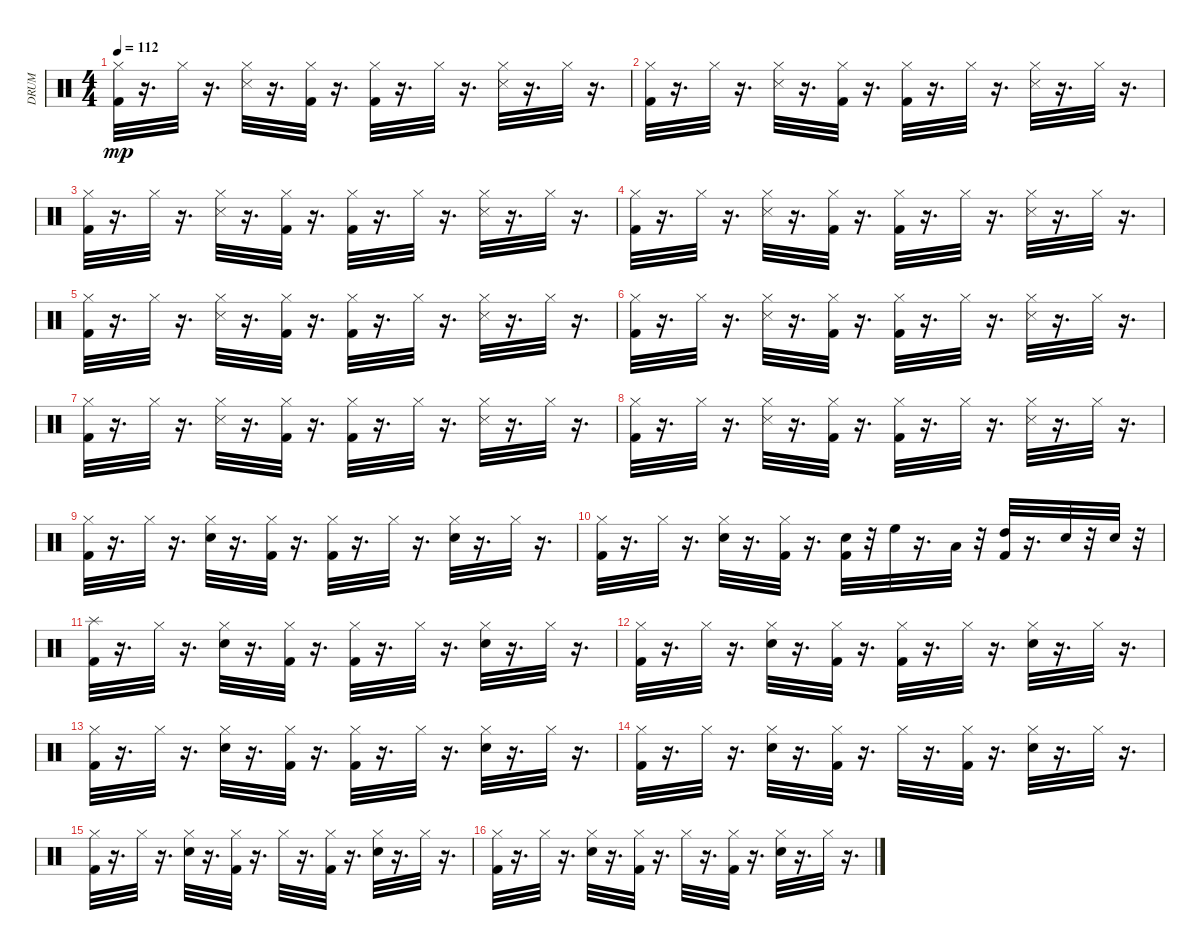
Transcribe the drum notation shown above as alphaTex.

\track ("DRUM" "DRUM") {instrument percussion}
\staff {score}
\articulation defaults
\ts (4 4)
\tempo 112
\clef neutral
\ks c
("Kick (hit) 2" "Hi-Hat (closed)").32{dy mp} r.16{d} "Hi-Hat (closed)".32 r.16{d} ("Hi-Hat (closed)" "Snare (side stick) 3").32 r.16{d} ("Kick (hit) 2" "Hi-Hat (closed)").32 r.16{d} ("Kick (hit) 2" "Hi-Hat (closed)").32 r.16{d} "Hi-Hat (closed)".32 r.16{d} ("Hi-Hat (closed)" "Snare (side stick) 3").32 r.16{d} "Hi-Hat (closed)".32 r.16{d} |
("Kick (hit) 2" "Hi-Hat (closed)").32 r.16{d} "Hi-Hat (closed)".32 r.16{d} ("Hi-Hat (closed)" "Snare (side stick) 3").32 r.16{d} ("Kick (hit) 2" "Hi-Hat (closed)").32 r.16{d} ("Kick (hit) 2" "Hi-Hat (closed)").32 r.16{d} "Hi-Hat (closed)".32 r.16{d} ("Hi-Hat (closed)" "Snare (side stick) 3").32 r.16{d} "Hi-Hat (closed)".32 r.16{d} |
("Kick (hit) 2" "Hi-Hat (closed)").32 r.16{d} "Hi-Hat (closed)".32 r.16{d} ("Hi-Hat (closed)" "Snare (side stick) 3").32 r.16{d} ("Kick (hit) 2" "Hi-Hat (closed)").32 r.16{d} ("Kick (hit) 2" "Hi-Hat (closed)").32 r.16{d} "Hi-Hat (closed)".32 r.16{d} ("Hi-Hat (closed)" "Snare (side stick) 3").32 r.16{d} "Hi-Hat (closed)".32 r.16{d} |
("Kick (hit) 2" "Hi-Hat (closed)").32 r.16{d} "Hi-Hat (closed)".32 r.16{d} ("Hi-Hat (closed)" "Snare (side stick) 3").32 r.16{d} ("Kick (hit) 2" "Hi-Hat (closed)").32 r.16{d} ("Kick (hit) 2" "Hi-Hat (closed)").32 r.16{d} "Hi-Hat (closed)".32 r.16{d} ("Hi-Hat (closed)" "Snare (side stick) 3").32 r.16{d} "Hi-Hat (closed)".32 r.16{d} |
("Kick (hit) 2" "Hi-Hat (closed)").32 r.16{d} "Hi-Hat (closed)".32 r.16{d} ("Hi-Hat (closed)" "Snare (side stick) 3").32 r.16{d} ("Kick (hit) 2" "Hi-Hat (closed)").32 r.16{d} ("Kick (hit) 2" "Hi-Hat (closed)").32 r.16{d} "Hi-Hat (closed)".32 r.16{d} ("Hi-Hat (closed)" "Snare (side stick) 3").32 r.16{d} "Hi-Hat (closed)".32 r.16{d} |
("Kick (hit) 2" "Hi-Hat (closed)").32 r.16{d} "Hi-Hat (closed)".32 r.16{d} ("Hi-Hat (closed)" "Snare (side stick) 3").32 r.16{d} ("Kick (hit) 2" "Hi-Hat (closed)").32 r.16{d} ("Kick (hit) 2" "Hi-Hat (closed)").32 r.16{d} "Hi-Hat (closed)".32 r.16{d} ("Hi-Hat (closed)" "Snare (side stick) 3").32 r.16{d} "Hi-Hat (closed)".32 r.16{d} |
("Kick (hit) 2" "Hi-Hat (closed)").32 r.16{d} "Hi-Hat (closed)".32 r.16{d} ("Hi-Hat (closed)" "Snare (side stick) 3").32 r.16{d} ("Kick (hit) 2" "Hi-Hat (closed)").32 r.16{d} ("Kick (hit) 2" "Hi-Hat (closed)").32 r.16{d} "Hi-Hat (closed)".32 r.16{d} ("Hi-Hat (closed)" "Snare (side stick) 3").32 r.16{d} "Hi-Hat (closed)".32 r.16{d} |
("Kick (hit) 2" "Hi-Hat (closed)").32 r.16{d} "Hi-Hat (closed)".32 r.16{d} ("Hi-Hat (closed)" "Snare (side stick) 3").32 r.16{d} ("Kick (hit) 2" "Hi-Hat (closed)").32 r.16{d} ("Kick (hit) 2" "Hi-Hat (closed)").32 r.16{d} "Hi-Hat (closed)".32 r.16{d} ("Hi-Hat (closed)" "Snare (side stick) 3").32 r.16{d} "Hi-Hat (closed)".32 r.16{d} |
("Kick (hit) 2" "Hi-Hat (closed)").32 r.16{d} "Hi-Hat (closed)".32 r.16{d} ("Hi-Hat (closed)" "Snare (hit) 2").32 r.16{d} ("Kick (hit) 2" "Hi-Hat (closed)").32 r.16{d} ("Kick (hit) 2" "Hi-Hat (closed)").32 r.16{d} "Hi-Hat (closed)".32 r.16{d} ("Hi-Hat (closed)" "Snare (hit) 2").32 r.16{d} "Hi-Hat (closed)".32 r.16{d} |
("Kick (hit) 2" "Hi-Hat (closed)").32 r.16{d} "Hi-Hat (closed)".32 r.16{d} ("Hi-Hat (closed)" "Snare (hit) 2").32 r.16{d} ("Kick (hit) 2" "Hi-Hat (closed)").32 r.16{d} ("Kick (hit) 2" "Snare (hit) 2").32 r.32 "High Floor Tom (hit)".32 r.16{d} "Low Floor Tom (hit)".32 r.32 ("Kick (hit) 2" "High Tom (hit)").32 r.16{d} "Snare (hit) 2".32 r.32 "Snare (hit) 2".32 r.32 |
("Kick (hit) 2" "Splash (hit)").32 r.16{d} "Hi-Hat (closed)".32 r.16{d} ("Hi-Hat (closed)" "Snare (hit) 2").32 r.16{d} ("Kick (hit) 2" "Hi-Hat (closed)").32 r.16{d} ("Kick (hit) 2" "Hi-Hat (closed)").32 r.16{d} "Hi-Hat (closed)".32 r.16{d} ("Hi-Hat (closed)" "Snare (hit) 2").32 r.16{d} "Hi-Hat (closed)".32 r.16{d} |
("Kick (hit) 2" "Hi-Hat (closed)").32 r.16{d} "Hi-Hat (closed)".32 r.16{d} ("Hi-Hat (closed)" "Snare (hit) 2").32 r.16{d} ("Kick (hit) 2" "Hi-Hat (closed)").32 r.16{d} ("Kick (hit) 2" "Hi-Hat (closed)").32 r.16{d} "Hi-Hat (closed)".32 r.16{d} ("Hi-Hat (closed)" "Snare (hit) 2").32 r.16{d} "Hi-Hat (closed)".32 r.16{d} |
("Kick (hit) 2" "Hi-Hat (closed)").32 r.16{d} "Hi-Hat (closed)".32 r.16{d} ("Hi-Hat (closed)" "Snare (hit) 2").32 r.16{d} ("Kick (hit) 2" "Hi-Hat (closed)").32 r.16{d} ("Kick (hit) 2" "Hi-Hat (closed)").32 r.16{d} "Hi-Hat (closed)".32 r.16{d} ("Hi-Hat (closed)" "Snare (hit) 2").32 r.16{d} "Hi-Hat (closed)".32 r.16{d} |
("Kick (hit) 2" "Hi-Hat (closed)").32 r.16{d} "Hi-Hat (closed)".32 r.16{d} ("Hi-Hat (closed)" "Snare (hit) 2").32 r.16{d} ("Kick (hit) 2" "Hi-Hat (closed)").32 r.16{d} "Hi-Hat (closed)".32 r.16{d} ("Kick (hit) 2" "Hi-Hat (closed)").32 r.16{d} ("Hi-Hat (closed)" "Snare (hit) 2").32 r.16{d} "Hi-Hat (closed)".32 r.16{d} |
("Kick (hit) 2" "Hi-Hat (closed)").32 r.16{d} "Hi-Hat (closed)".32 r.16{d} ("Hi-Hat (closed)" "Snare (hit) 2").32 r.16{d} ("Kick (hit) 2" "Hi-Hat (closed)").32 r.16{d} "Hi-Hat (closed)".32 r.16{d} ("Kick (hit) 2" "Hi-Hat (closed)").32 r.16{d} ("Hi-Hat (closed)" "Snare (hit) 2").32 r.16{d} "Hi-Hat (closed)".32 r.16{d} |
("Kick (hit) 2" "Hi-Hat (closed)").32 r.16{d} "Hi-Hat (closed)".32 r.16{d} ("Hi-Hat (closed)" "Snare (hit) 2").32 r.16{d} ("Kick (hit) 2" "Hi-Hat (closed)").32 r.16{d} "Hi-Hat (closed)".32 r.16{d} ("Kick (hit) 2" "Hi-Hat (closed)").32 r.16{d} ("Hi-Hat (closed)" "Snare (hit) 2").32 r.16{d} "Hi-Hat (closed)".32 r.16{d}
